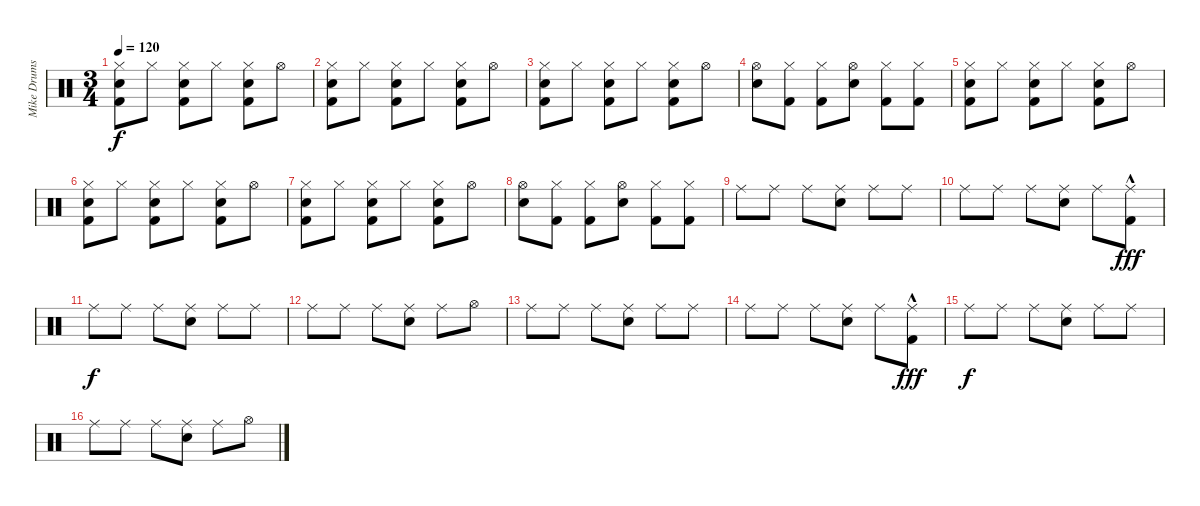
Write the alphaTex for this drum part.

\track ("Mike Drums" "Mike Drums") {instrument percussion}
\staff {score}
\articulation defaults
\ts (3 4)
\tempo 120
\clef neutral
\ks c
("Hi-Hat (closed)" "Snare (hit) 2" "Kick (hit) 2").8{dy f} "Hi-Hat (closed)".8 ("Hi-Hat (closed)" "Snare (hit) 2" "Kick (hit) 2").8 "Hi-Hat (closed)".8 ("Hi-Hat (closed)" "Snare (hit) 2" "Kick (hit) 2").8 "Hi-Hat (open)".8 |
("Hi-Hat (closed)" "Snare (hit) 2" "Kick (hit) 2").8 "Hi-Hat (closed)".8 ("Hi-Hat (closed)" "Snare (hit) 2" "Kick (hit) 2").8 "Hi-Hat (closed)".8 ("Hi-Hat (closed)" "Snare (hit) 2" "Kick (hit) 2").8 "Hi-Hat (open)".8 |
("Hi-Hat (closed)" "Snare (hit) 2" "Kick (hit) 2").8 "Hi-Hat (closed)".8 ("Hi-Hat (closed)" "Snare (hit) 2" "Kick (hit) 2").8 "Hi-Hat (closed)".8 ("Hi-Hat (closed)" "Snare (hit) 2" "Kick (hit) 2").8 "Hi-Hat (open)".8 |
("Hi-Hat (open)" "Electric Snare (hit)").8 ("Hi-Hat (closed)" "Kick (hit) 2").8 ("Hi-Hat (closed)" "Kick (hit) 2").8 ("Hi-Hat (open)" "Electric Snare (hit)").8 ("Hi-Hat (closed)" "Kick (hit) 2").8 ("Hi-Hat (closed)" "Kick (hit) 2").8 |
("Hi-Hat (closed)" "Snare (hit) 2" "Kick (hit) 2").8 "Hi-Hat (closed)".8 ("Hi-Hat (closed)" "Snare (hit) 2" "Kick (hit) 2").8 "Hi-Hat (closed)".8 ("Hi-Hat (closed)" "Snare (hit) 2" "Kick (hit) 2").8 "Hi-Hat (open)".8 |
("Hi-Hat (closed)" "Snare (hit) 2" "Kick (hit) 2").8 "Hi-Hat (closed)".8 ("Hi-Hat (closed)" "Snare (hit) 2" "Kick (hit) 2").8 "Hi-Hat (closed)".8 ("Hi-Hat (closed)" "Snare (hit) 2" "Kick (hit) 2").8 "Hi-Hat (open)".8 |
("Hi-Hat (closed)" "Snare (hit) 2" "Kick (hit) 2").8 "Hi-Hat (closed)".8 ("Hi-Hat (closed)" "Snare (hit) 2" "Kick (hit) 2").8 "Hi-Hat (closed)".8 ("Hi-Hat (closed)" "Snare (hit) 2" "Kick (hit) 2").8 "Hi-Hat (open)".8 |
("Hi-Hat (open)" "Electric Snare (hit)").8 ("Hi-Hat (closed)" "Kick (hit) 2").8 ("Hi-Hat (closed)" "Kick (hit) 2").8 ("Hi-Hat (open)" "Electric Snare (hit)").8 ("Hi-Hat (closed)" "Kick (hit) 2").8 ("Hi-Hat (closed)" "Kick (hit) 2").8 |
"Ride (middle)".8 "Ride (middle)".8 "Ride (middle)".8 ("Ride (middle)" "Electric Snare (hit)").8 "Ride (middle)".8 "Ride (middle)".8 |
"Ride (middle)".8 "Ride (middle)".8 "Ride (middle)".8 ("Ride (middle)" "Electric Snare (hit)").8 "Ride (middle)".8 ("Ride (middle)" "Kick (hit) 2"{hac}).8{dy fff} |
"Ride (middle)".8{dy f} "Ride (middle)".8 "Ride (middle)".8 ("Ride (middle)" "Electric Snare (hit)").8 "Ride (middle)".8 "Ride (middle)".8 |
"Ride (middle)".8 "Ride (middle)".8 "Ride (middle)".8 ("Ride (middle)" "Electric Snare (hit)").8 "Ride (middle)".8 "Hi-Hat (open)".8 |
"Ride (middle)".8 "Ride (middle)".8 "Ride (middle)".8 ("Ride (middle)" "Electric Snare (hit)").8 "Ride (middle)".8 "Ride (middle)".8 |
"Ride (middle)".8 "Ride (middle)".8 "Ride (middle)".8 ("Ride (middle)" "Electric Snare (hit)").8 "Ride (middle)".8 ("Ride (middle)" "Kick (hit) 2"{hac}).8{dy fff} |
"Ride (middle)".8{dy f} "Ride (middle)".8 "Ride (middle)".8 ("Ride (middle)" "Electric Snare (hit)").8 "Ride (middle)".8 "Ride (middle)".8 |
"Ride (middle)".8 "Ride (middle)".8 "Ride (middle)".8 ("Ride (middle)" "Electric Snare (hit)").8 "Ride (middle)".8 "Hi-Hat (open)".8
